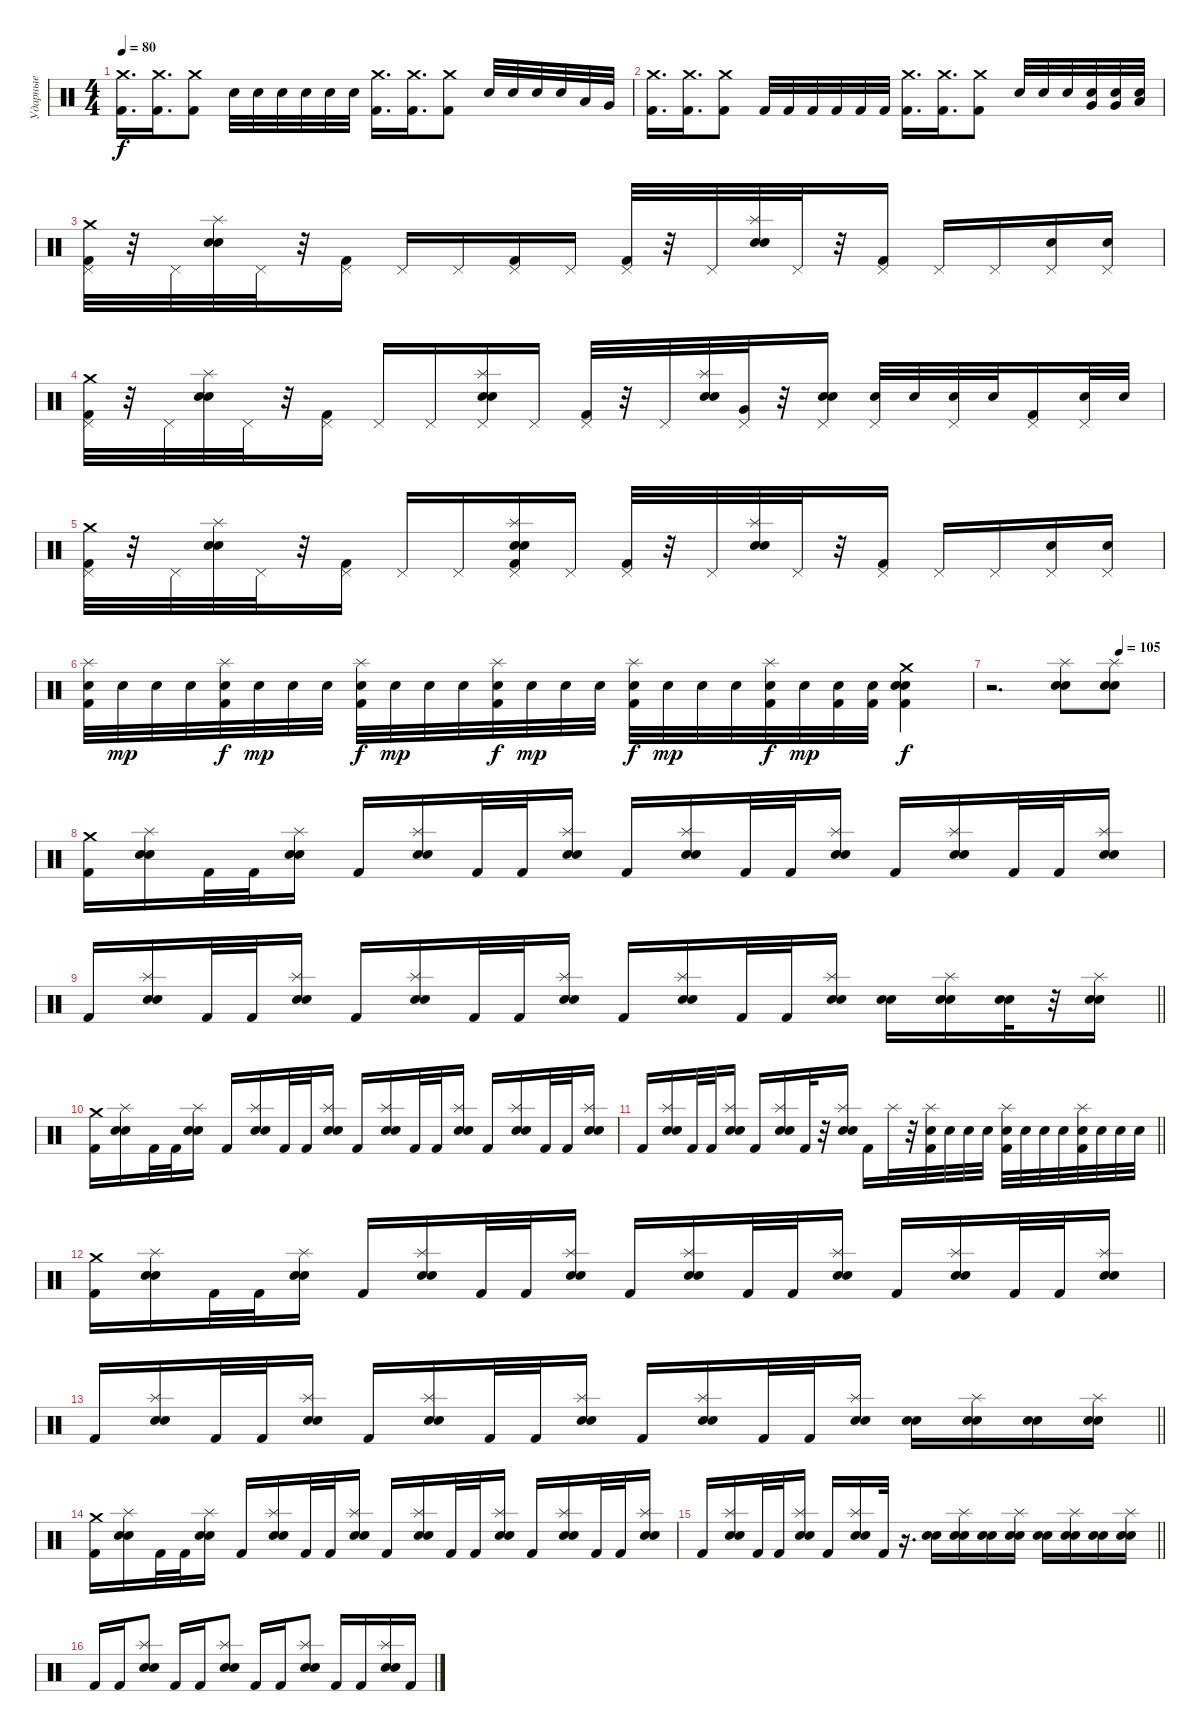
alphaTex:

\track ("Ударные" "Ударные") {instrument percussion}
\staff {score}
\articulation defaults
\ts (4 4)
\tempo 80
\clef neutral
\ks c
("Crash medium (hit)" "Kick (hit) 2").16{d dy f} ("Crash medium (hit)" "Kick (hit) 2").16{d} ("Crash medium (hit)" "Kick (hit) 2").8 "Electric Snare (hit)".32 "Electric Snare (hit)".32 "Electric Snare (hit)".32 "Electric Snare (hit)".32 "Electric Snare (hit)".32 "Electric Snare (hit)".32 ("Crash medium (hit)" "Kick (hit) 2").16{d} ("Crash medium (hit)" "Kick (hit) 2").16{d} ("Crash medium (hit)" "Kick (hit) 2").8 "Electric Snare (hit)".32 "Electric Snare (hit)".32 "Electric Snare (hit)".32 "Electric Snare (hit)".32 "Low Tom (hit)".32 "Very Low Tom (hit)".32 |
("Crash medium (hit)" "Kick (hit) 2").16{d} ("Crash medium (hit)" "Kick (hit) 2").16{d} ("Crash medium (hit)" "Kick (hit) 2").8 "Kick (hit) 2".32 "Kick (hit) 2".32 "Kick (hit) 2".32 "Kick (hit) 2".32 "Kick (hit) 2".32 "Kick (hit) 2".32 ("Crash medium (hit)" "Kick (hit) 2").16{d} ("Crash medium (hit)" "Kick (hit) 2").16{d} ("Crash medium (hit)" "Kick (hit) 2").8 "Electric Snare (hit)".32 "Electric Snare (hit)".32 "Electric Snare (hit)".32 ("Electric Snare (hit)" "Very Low Tom (hit)").32 ("Electric Snare (hit)" "Very Low Tom (hit)").32 ("Electric Snare (hit)" "Low Floor Tom (hit)").32 |
("Crash medium (hit)" "Pedal Hi-Hat (hit)" "Kick (hit) 2").32 r.32 "Pedal Hi-Hat (hit)".32 ("Splash (hit)" "Electric Snare (hit)" "Snare (hit) 2").32 "Pedal Hi-Hat (hit)".32 r.32 ("Pedal Hi-Hat (hit)" "Kick (hit) 2").16 "Pedal Hi-Hat (hit)".16 "Pedal Hi-Hat (hit)".16 ("Pedal Hi-Hat (hit)" "Kick (hit) 2").16 "Pedal Hi-Hat (hit)".16 ("Pedal Hi-Hat (hit)" "Kick (hit) 2").32 r.32 "Pedal Hi-Hat (hit)".32 ("Splash (hit)" "Electric Snare (hit)" "Snare (hit) 2").32 "Pedal Hi-Hat (hit)".32 r.32 ("Pedal Hi-Hat (hit)" "Kick (hit) 2").16 "Pedal Hi-Hat (hit)".16 "Pedal Hi-Hat (hit)".16 ("Electric Snare (hit)" "Pedal Hi-Hat (hit)").16 ("Electric Snare (hit)" "Pedal Hi-Hat (hit)").16 |
("Crash medium (hit)" "Pedal Hi-Hat (hit)" "Kick (hit) 2").32 r.32 "Pedal Hi-Hat (hit)".32 ("Splash (hit)" "Electric Snare (hit)" "Snare (hit) 2").32 "Pedal Hi-Hat (hit)".32 r.32 ("Pedal Hi-Hat (hit)" "Kick (hit) 2").16 "Pedal Hi-Hat (hit)".16 "Pedal Hi-Hat (hit)".16 ("Splash (hit)" "Electric Snare (hit)" "Snare (hit) 2" "Pedal Hi-Hat (hit)").16 "Pedal Hi-Hat (hit)".16 ("Pedal Hi-Hat (hit)" "Kick (hit) 2").32 r.32 "Pedal Hi-Hat (hit)".32 ("Splash (hit)" "Electric Snare (hit)" "Snare (hit) 2").32 ("Very Low Tom (hit)" "Pedal Hi-Hat (hit)").32 r.32 ("Electric Snare (hit)" "Snare (hit) 2" "Pedal Hi-Hat (hit)").16 ("Electric Snare (hit)" "Pedal Hi-Hat (hit)").32 "Electric Snare (hit)".32 ("Electric Snare (hit)" "Pedal Hi-Hat (hit)").32 "Electric Snare (hit)".32 ("Pedal Hi-Hat (hit)" "Kick (hit) 2").16 ("Electric Snare (hit)" "Pedal Hi-Hat (hit)").32 "Electric Snare (hit)".32 |
("Crash medium (hit)" "Pedal Hi-Hat (hit)" "Kick (hit) 2").32 r.32 "Pedal Hi-Hat (hit)".32 ("Splash (hit)" "Electric Snare (hit)" "Snare (hit) 2").32 "Pedal Hi-Hat (hit)".32 r.32 ("Pedal Hi-Hat (hit)" "Kick (hit) 2").16 "Pedal Hi-Hat (hit)".16 "Pedal Hi-Hat (hit)".16 ("Splash (hit)" "Electric Snare (hit)" "Snare (hit) 2" "Pedal Hi-Hat (hit)" "Kick (hit) 2").16 "Pedal Hi-Hat (hit)".16 ("Pedal Hi-Hat (hit)" "Kick (hit) 2").32 r.32 "Pedal Hi-Hat (hit)".32 ("Splash (hit)" "Electric Snare (hit)" "Snare (hit) 2").32 "Pedal Hi-Hat (hit)".32 r.32 ("Pedal Hi-Hat (hit)" "Kick (hit) 2").16 "Pedal Hi-Hat (hit)".16 "Pedal Hi-Hat (hit)".16 ("Electric Snare (hit)" "Pedal Hi-Hat (hit)").16 ("Electric Snare (hit)" "Pedal Hi-Hat (hit)").16 |
("Splash (hit)" "Electric Snare (hit)" "Kick (hit) 2").32 "Electric Snare (hit)".32{dy mp} "Electric Snare (hit)".32 "Electric Snare (hit)".32 ("Splash (hit)" "Electric Snare (hit)" "Kick (hit) 2").32{dy f} "Electric Snare (hit)".32{dy mp} "Electric Snare (hit)".32 "Electric Snare (hit)".32 ("Splash (hit)" "Electric Snare (hit)" "Kick (hit) 2").32{dy f} "Electric Snare (hit)".32{dy mp} "Electric Snare (hit)".32 "Electric Snare (hit)".32 ("Splash (hit)" "Electric Snare (hit)" "Kick (hit) 2").32{dy f} "Electric Snare (hit)".32{dy mp} "Electric Snare (hit)".32 "Electric Snare (hit)".32 ("Splash (hit)" "Electric Snare (hit)" "Kick (hit) 2").32{dy f} "Electric Snare (hit)".32{dy mp} "Electric Snare (hit)".32 "Electric Snare (hit)".32 ("Splash (hit)" "Electric Snare (hit)" "Kick (hit) 2").32{dy f} "Electric Snare (hit)".32{dy mp} ("Electric Snare (hit)" "Kick (hit) 2").32 ("Electric Snare (hit)" "Kick (hit) 2").32 ("Crash medium (hit)" "Electric Snare (hit)" "Snare (hit) 2" "Kick (hit) 2").4{dy f} |
\tempo (105 0.75)
r.2{d} ("Splash (hit)" "Electric Snare (hit)" "Snare (hit) 2").8 ("Splash (hit)" "Electric Snare (hit)" "Snare (hit) 2").8 |
("Crash medium (hit)" "Kick (hit) 2").16 ("Splash (hit)" "Electric Snare (hit)" "Snare (hit) 2").16 "Kick (hit) 2".32 "Kick (hit) 2".32 ("Splash (hit)" "Electric Snare (hit)" "Snare (hit) 2").16 "Kick (hit) 2".16 ("Splash (hit)" "Electric Snare (hit)" "Snare (hit) 2").16 "Kick (hit) 2".32 "Kick (hit) 2".32 ("Splash (hit)" "Electric Snare (hit)" "Snare (hit) 2").16 "Kick (hit) 2".16 ("Splash (hit)" "Electric Snare (hit)" "Snare (hit) 2").16 "Kick (hit) 2".32 "Kick (hit) 2".32 ("Splash (hit)" "Electric Snare (hit)" "Snare (hit) 2").16 "Kick (hit) 2".16 ("Splash (hit)" "Electric Snare (hit)" "Snare (hit) 2").16 "Kick (hit) 2".32 "Kick (hit) 2".32 ("Splash (hit)" "Electric Snare (hit)" "Snare (hit) 2").16 |
\barLineRight lightlight "Kick (hit) 2".16
("Splash (hit)" "Electric Snare (hit)" "Snare (hit) 2").16 "Kick (hit) 2".32 "Kick (hit) 2".32 ("Splash (hit)" "Electric Snare (hit)" "Snare (hit) 2").16 "Kick (hit) 2".16 ("Splash (hit)" "Electric Snare (hit)" "Snare (hit) 2").16 "Kick (hit) 2".32 "Kick (hit) 2".32 ("Splash (hit)" "Electric Snare (hit)" "Snare (hit) 2").16 "Kick (hit) 2".16 ("Splash (hit)" "Electric Snare (hit)" "Snare (hit) 2").16 "Kick (hit) 2".32 "Kick (hit) 2".32 ("Splash (hit)" "Electric Snare (hit)" "Snare (hit) 2").16 ("Electric Snare (hit)" "Snare (hit) 2").16 ("Splash (hit)" "Electric Snare (hit)" "Snare (hit) 2").16 ("Electric Snare (hit)" "Snare (hit) 2").32 r.32 ("Splash (hit)" "Electric Snare (hit)" "Snare (hit) 2").16 |
("Crash medium (hit)" "Kick (hit) 2").16 ("Splash (hit)" "Electric Snare (hit)" "Snare (hit) 2").16 "Kick (hit) 2".32 "Kick (hit) 2".32 ("Splash (hit)" "Electric Snare (hit)" "Snare (hit) 2").16 "Kick (hit) 2".16 ("Splash (hit)" "Electric Snare (hit)" "Snare (hit) 2").16 "Kick (hit) 2".32 "Kick (hit) 2".32 ("Splash (hit)" "Electric Snare (hit)" "Snare (hit) 2").16 "Kick (hit) 2".16 ("Splash (hit)" "Electric Snare (hit)" "Snare (hit) 2").16 "Kick (hit) 2".32 "Kick (hit) 2".32 ("Splash (hit)" "Electric Snare (hit)" "Snare (hit) 2").16 "Kick (hit) 2".16 ("Splash (hit)" "Electric Snare (hit)" "Snare (hit) 2").16 "Kick (hit) 2".32 "Kick (hit) 2".32 ("Splash (hit)" "Electric Snare (hit)" "Snare (hit) 2").16 |
\barLineRight lightlight "Kick (hit) 2".16
("Splash (hit)" "Electric Snare (hit)" "Snare (hit) 2").16 "Kick (hit) 2".32 "Kick (hit) 2".32 ("Splash (hit)" "Electric Snare (hit)" "Snare (hit) 2").16 "Kick (hit) 2".16 ("Splash (hit)" "Electric Snare (hit)" "Snare (hit) 2").16 "Kick (hit) 2".32 r.32 ("Splash (hit)" "Electric Snare (hit)" "Snare (hit) 2").16 "Kick (hit) 2".16 "Splash (hit)".32 r.32 ("Splash (hit)" "Electric Snare (hit)" "Kick (hit) 2").32 "Electric Snare (hit)".32 "Electric Snare (hit)".32 "Electric Snare (hit)".32 ("Splash (hit)" "Electric Snare (hit)" "Kick (hit) 2").32 "Electric Snare (hit)".32 "Electric Snare (hit)".32 "Electric Snare (hit)".32 ("Splash (hit)" "Electric Snare (hit)" "Kick (hit) 2").32 "Electric Snare (hit)".32 "Electric Snare (hit)".32 "Electric Snare (hit)".32 |
("Crash medium (hit)" "Kick (hit) 2").16 ("Splash (hit)" "Electric Snare (hit)" "Snare (hit) 2").16 "Kick (hit) 2".32 "Kick (hit) 2".32 ("Splash (hit)" "Electric Snare (hit)" "Snare (hit) 2").16 "Kick (hit) 2".16 ("Splash (hit)" "Electric Snare (hit)" "Snare (hit) 2").16 "Kick (hit) 2".32 "Kick (hit) 2".32 ("Splash (hit)" "Electric Snare (hit)" "Snare (hit) 2").16 "Kick (hit) 2".16 ("Splash (hit)" "Electric Snare (hit)" "Snare (hit) 2").16 "Kick (hit) 2".32 "Kick (hit) 2".32 ("Splash (hit)" "Electric Snare (hit)" "Snare (hit) 2").16 "Kick (hit) 2".16 ("Splash (hit)" "Electric Snare (hit)" "Snare (hit) 2").16 "Kick (hit) 2".32 "Kick (hit) 2".32 ("Splash (hit)" "Electric Snare (hit)" "Snare (hit) 2").16 |
\barLineRight lightlight "Kick (hit) 2".16
("Splash (hit)" "Electric Snare (hit)" "Snare (hit) 2").16 "Kick (hit) 2".32 "Kick (hit) 2".32 ("Splash (hit)" "Electric Snare (hit)" "Snare (hit) 2").16 "Kick (hit) 2".16 ("Splash (hit)" "Electric Snare (hit)" "Snare (hit) 2").16 "Kick (hit) 2".32 "Kick (hit) 2".32 ("Splash (hit)" "Electric Snare (hit)" "Snare (hit) 2").16 "Kick (hit) 2".16 ("Splash (hit)" "Electric Snare (hit)" "Snare (hit) 2").16 "Kick (hit) 2".32 "Kick (hit) 2".32 ("Splash (hit)" "Electric Snare (hit)" "Snare (hit) 2").16 ("Electric Snare (hit)" "Snare (hit) 2").16 ("Splash (hit)" "Electric Snare (hit)" "Snare (hit) 2").16 ("Electric Snare (hit)" "Snare (hit) 2").16 ("Splash (hit)" "Electric Snare (hit)" "Snare (hit) 2").16 |
("Crash medium (hit)" "Kick (hit) 2").16 ("Splash (hit)" "Electric Snare (hit)" "Snare (hit) 2").16 "Kick (hit) 2".32 "Kick (hit) 2".32 ("Splash (hit)" "Electric Snare (hit)" "Snare (hit) 2").16 "Kick (hit) 2".16 ("Splash (hit)" "Electric Snare (hit)" "Snare (hit) 2").16 "Kick (hit) 2".32 "Kick (hit) 2".32 ("Splash (hit)" "Electric Snare (hit)" "Snare (hit) 2").16 "Kick (hit) 2".16 ("Splash (hit)" "Electric Snare (hit)" "Snare (hit) 2").16 "Kick (hit) 2".32 "Kick (hit) 2".32 ("Splash (hit)" "Electric Snare (hit)" "Snare (hit) 2").16 "Kick (hit) 2".16 ("Splash (hit)" "Electric Snare (hit)" "Snare (hit) 2").16 "Kick (hit) 2".32 "Kick (hit) 2".32 ("Splash (hit)" "Electric Snare (hit)" "Snare (hit) 2").16 |
\barLineRight lightlight "Kick (hit) 2".16
("Splash (hit)" "Electric Snare (hit)" "Snare (hit) 2").16 "Kick (hit) 2".32 "Kick (hit) 2".32 ("Splash (hit)" "Electric Snare (hit)" "Snare (hit) 2").16 "Kick (hit) 2".16 ("Splash (hit)" "Electric Snare (hit)" "Snare (hit) 2").16 "Kick (hit) 2".32 r.16{d} ("Electric Snare (hit)" "Snare (hit) 2").16 ("Splash (hit)" "Electric Snare (hit)" "Snare (hit) 2").16 ("Electric Snare (hit)" "Snare (hit) 2").16 ("Splash (hit)" "Electric Snare (hit)" "Snare (hit) 2").16 ("Electric Snare (hit)" "Snare (hit) 2").16 ("Splash (hit)" "Electric Snare (hit)" "Snare (hit) 2").16 ("Electric Snare (hit)" "Snare (hit) 2").16 ("Splash (hit)" "Electric Snare (hit)" "Snare (hit) 2").16 |
"Kick (hit) 2".16 "Kick (hit) 2".16 ("Splash (hit)" "Electric Snare (hit)" "Snare (hit) 2").8 "Kick (hit) 2".16 "Kick (hit) 2".16 ("Splash (hit)" "Electric Snare (hit)" "Snare (hit) 2").8 "Kick (hit) 2".16 "Kick (hit) 2".16 ("Splash (hit)" "Electric Snare (hit)" "Snare (hit) 2").8 "Kick (hit) 2".16 "Kick (hit) 2".16 ("Splash (hit)" "Electric Snare (hit)" "Snare (hit) 2").16 "Kick (hit) 2".16
